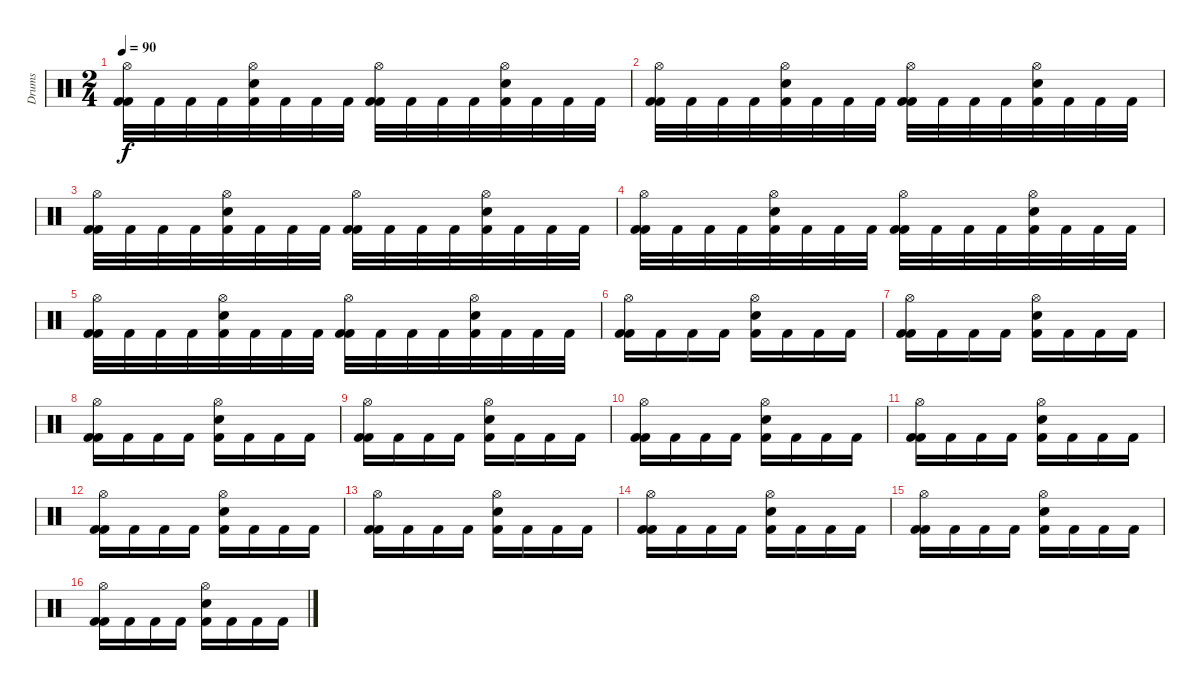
\track ("Drums" "Drums") {instrument percussion}
\staff {score}
\articulation defaults
\ts (2 4)
\tempo 90
\clef neutral
\ks c
("Hi-Hat (open)" "Kick (hit) 2" "Kick (hit) 2").32{dy f} "Kick (hit) 2".32 "Kick (hit) 2".32 "Kick (hit) 2".32 ("Hi-Hat (open)" "Electric Snare (hit)" "Kick (hit) 2").32 "Kick (hit) 2".32 "Kick (hit) 2".32 "Kick (hit) 2".32 ("Hi-Hat (open)" "Kick (hit) 2" "Kick (hit) 2").32 "Kick (hit) 2".32 "Kick (hit) 2".32 "Kick (hit) 2".32 ("Hi-Hat (open)" "Electric Snare (hit)" "Kick (hit) 2").32 "Kick (hit) 2".32 "Kick (hit) 2".32 "Kick (hit) 2".32 |
("Hi-Hat (open)" "Kick (hit) 2" "Kick (hit) 2").32 "Kick (hit) 2".32 "Kick (hit) 2".32 "Kick (hit) 2".32 ("Hi-Hat (open)" "Electric Snare (hit)" "Kick (hit) 2").32 "Kick (hit) 2".32 "Kick (hit) 2".32 "Kick (hit) 2".32 ("Hi-Hat (open)" "Kick (hit) 2" "Kick (hit) 2").32 "Kick (hit) 2".32 "Kick (hit) 2".32 "Kick (hit) 2".32 ("Hi-Hat (open)" "Electric Snare (hit)" "Kick (hit) 2").32 "Kick (hit) 2".32 "Kick (hit) 2".32 "Kick (hit) 2".32 |
("Hi-Hat (open)" "Kick (hit) 2" "Kick (hit) 2").32 "Kick (hit) 2".32 "Kick (hit) 2".32 "Kick (hit) 2".32 ("Hi-Hat (open)" "Electric Snare (hit)" "Kick (hit) 2").32 "Kick (hit) 2".32 "Kick (hit) 2".32 "Kick (hit) 2".32 ("Hi-Hat (open)" "Kick (hit) 2" "Kick (hit) 2").32 "Kick (hit) 2".32 "Kick (hit) 2".32 "Kick (hit) 2".32 ("Hi-Hat (open)" "Electric Snare (hit)" "Kick (hit) 2").32 "Kick (hit) 2".32 "Kick (hit) 2".32 "Kick (hit) 2".32 |
("Hi-Hat (open)" "Kick (hit) 2" "Kick (hit) 2").32 "Kick (hit) 2".32 "Kick (hit) 2".32 "Kick (hit) 2".32 ("Hi-Hat (open)" "Electric Snare (hit)" "Kick (hit) 2").32 "Kick (hit) 2".32 "Kick (hit) 2".32 "Kick (hit) 2".32 ("Hi-Hat (open)" "Kick (hit) 2" "Kick (hit) 2").32 "Kick (hit) 2".32 "Kick (hit) 2".32 "Kick (hit) 2".32 ("Hi-Hat (open)" "Electric Snare (hit)" "Kick (hit) 2").32 "Kick (hit) 2".32 "Kick (hit) 2".32 "Kick (hit) 2".32 |
("Hi-Hat (open)" "Kick (hit) 2" "Kick (hit) 2").32 "Kick (hit) 2".32 "Kick (hit) 2".32 "Kick (hit) 2".32 ("Hi-Hat (open)" "Electric Snare (hit)" "Kick (hit) 2").32 "Kick (hit) 2".32 "Kick (hit) 2".32 "Kick (hit) 2".32 ("Hi-Hat (open)" "Kick (hit) 2" "Kick (hit) 2").32 "Kick (hit) 2".32 "Kick (hit) 2".32 "Kick (hit) 2".32 ("Hi-Hat (open)" "Electric Snare (hit)" "Kick (hit) 2").32 "Kick (hit) 2".32 "Kick (hit) 2".32 "Kick (hit) 2".32 |
("Hi-Hat (open)" "Kick (hit) 2" "Kick (hit) 2").16 "Kick (hit) 2".16 "Kick (hit) 2".16 "Kick (hit) 2".16 ("Hi-Hat (open)" "Electric Snare (hit)" "Kick (hit) 2").16 "Kick (hit) 2".16 "Kick (hit) 2".16 "Kick (hit) 2".16 |
("Hi-Hat (open)" "Kick (hit) 2" "Kick (hit) 2").16 "Kick (hit) 2".16 "Kick (hit) 2".16 "Kick (hit) 2".16 ("Hi-Hat (open)" "Electric Snare (hit)" "Kick (hit) 2").16 "Kick (hit) 2".16 "Kick (hit) 2".16 "Kick (hit) 2".16 |
("Hi-Hat (open)" "Kick (hit) 2" "Kick (hit) 2").16 "Kick (hit) 2".16 "Kick (hit) 2".16 "Kick (hit) 2".16 ("Hi-Hat (open)" "Electric Snare (hit)" "Kick (hit) 2").16 "Kick (hit) 2".16 "Kick (hit) 2".16 "Kick (hit) 2".16 |
("Hi-Hat (open)" "Kick (hit) 2" "Kick (hit) 2").16 "Kick (hit) 2".16 "Kick (hit) 2".16 "Kick (hit) 2".16 ("Hi-Hat (open)" "Electric Snare (hit)" "Kick (hit) 2").16 "Kick (hit) 2".16 "Kick (hit) 2".16 "Kick (hit) 2".16 |
("Hi-Hat (open)" "Kick (hit) 2" "Kick (hit) 2").16 "Kick (hit) 2".16 "Kick (hit) 2".16 "Kick (hit) 2".16 ("Hi-Hat (open)" "Electric Snare (hit)" "Kick (hit) 2").16 "Kick (hit) 2".16 "Kick (hit) 2".16 "Kick (hit) 2".16 |
("Hi-Hat (open)" "Kick (hit) 2" "Kick (hit) 2").16 "Kick (hit) 2".16 "Kick (hit) 2".16 "Kick (hit) 2".16 ("Hi-Hat (open)" "Electric Snare (hit)" "Kick (hit) 2").16 "Kick (hit) 2".16 "Kick (hit) 2".16 "Kick (hit) 2".16 |
("Hi-Hat (open)" "Kick (hit) 2" "Kick (hit) 2").16 "Kick (hit) 2".16 "Kick (hit) 2".16 "Kick (hit) 2".16 ("Hi-Hat (open)" "Electric Snare (hit)" "Kick (hit) 2").16 "Kick (hit) 2".16 "Kick (hit) 2".16 "Kick (hit) 2".16 |
("Hi-Hat (open)" "Kick (hit) 2" "Kick (hit) 2").16 "Kick (hit) 2".16 "Kick (hit) 2".16 "Kick (hit) 2".16 ("Hi-Hat (open)" "Electric Snare (hit)" "Kick (hit) 2").16 "Kick (hit) 2".16 "Kick (hit) 2".16 "Kick (hit) 2".16 |
("Hi-Hat (open)" "Kick (hit) 2" "Kick (hit) 2").16 "Kick (hit) 2".16 "Kick (hit) 2".16 "Kick (hit) 2".16 ("Hi-Hat (open)" "Electric Snare (hit)" "Kick (hit) 2").16 "Kick (hit) 2".16 "Kick (hit) 2".16 "Kick (hit) 2".16 |
("Hi-Hat (open)" "Kick (hit) 2" "Kick (hit) 2").16 "Kick (hit) 2".16 "Kick (hit) 2".16 "Kick (hit) 2".16 ("Hi-Hat (open)" "Electric Snare (hit)" "Kick (hit) 2").16 "Kick (hit) 2".16 "Kick (hit) 2".16 "Kick (hit) 2".16 |
("Hi-Hat (open)" "Kick (hit) 2" "Kick (hit) 2").16 "Kick (hit) 2".16 "Kick (hit) 2".16 "Kick (hit) 2".16 ("Hi-Hat (open)" "Electric Snare (hit)" "Kick (hit) 2").16 "Kick (hit) 2".16 "Kick (hit) 2".16 "Kick (hit) 2".16
